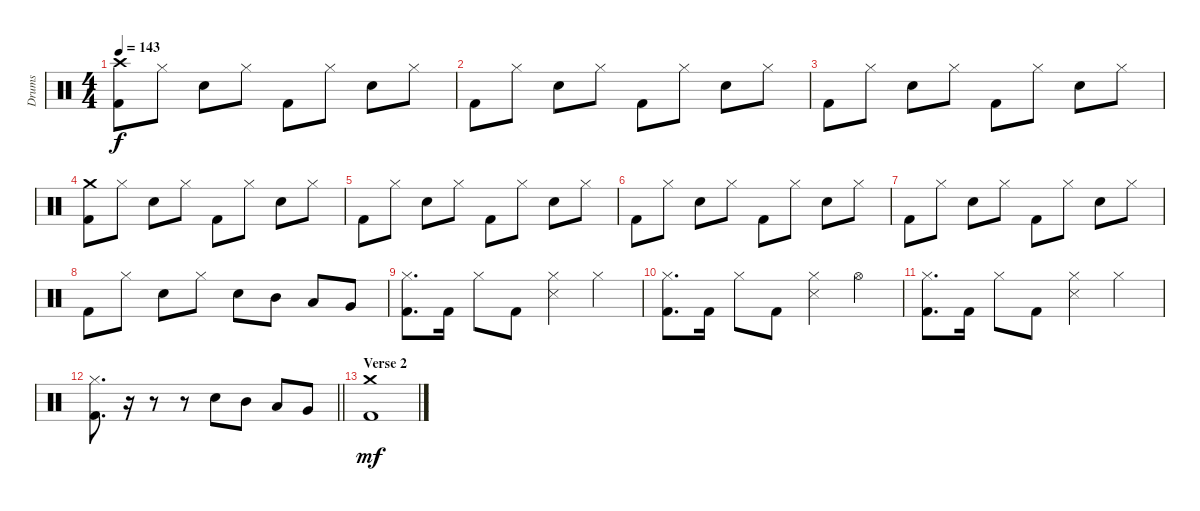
\track ("Drums" "Drums") {instrument percussion}
\staff {score}
\articulation defaults
\ts (4 4)
\tempo 143
\clef neutral
\ks c
("Crash high (hit)" "Kick (hit) 2").8{dy f} "Hi-Hat (closed)".8 "Snare (hit) 2".8 "Hi-Hat (closed)".8 "Kick (hit) 2".8 "Hi-Hat (closed)".8 "Snare (hit) 2".8 "Hi-Hat (closed)".8 |
"Kick (hit) 2".8 "Hi-Hat (closed)".8 "Snare (hit) 2".8 "Hi-Hat (closed)".8 "Kick (hit) 2".8 "Hi-Hat (closed)".8 "Snare (hit) 2".8 "Hi-Hat (closed)".8 |
"Kick (hit) 2".8 "Hi-Hat (closed)".8 "Snare (hit) 2".8 "Hi-Hat (closed)".8 "Kick (hit) 2".8 "Hi-Hat (closed)".8 "Snare (hit) 2".8 "Hi-Hat (closed)".8 |
("Crash medium (hit)" "Kick (hit) 2").8 "Hi-Hat (closed)".8 "Snare (hit) 2".8 "Hi-Hat (closed)".8 "Kick (hit) 2".8 "Hi-Hat (closed)".8 "Snare (hit) 2".8 "Hi-Hat (closed)".8 |
"Kick (hit) 2".8 "Hi-Hat (closed)".8 "Snare (hit) 2".8 "Hi-Hat (closed)".8 "Kick (hit) 2".8 "Hi-Hat (closed)".8 "Snare (hit) 2".8 "Hi-Hat (closed)".8 |
"Kick (hit) 2".8 "Hi-Hat (closed)".8 "Snare (hit) 2".8 "Hi-Hat (closed)".8 "Kick (hit) 2".8 "Hi-Hat (closed)".8 "Snare (hit) 2".8 "Hi-Hat (closed)".8 |
"Kick (hit) 2".8 "Hi-Hat (closed)".8 "Snare (hit) 2".8 "Hi-Hat (closed)".8 "Kick (hit) 2".8 "Hi-Hat (closed)".8 "Snare (hit) 2".8 "Hi-Hat (closed)".8 |
"Kick (hit) 2".8 "Hi-Hat (closed)".8 "Snare (hit) 2".8 "Hi-Hat (closed)".8 "Snare (hit) 2".8 "Mid Tom (hit)".8 "Low Tom (hit)".8 "Very Low Tom (hit)".8 |
("Hi-Hat (closed)" "Kick (hit) 2").8{d} "Kick (hit) 2".16 "Hi-Hat (closed)".8 "Kick (hit) 2".8 ("Hi-Hat (closed)" "Snare (side stick) 3").4 "Hi-Hat (closed)".4 |
("Hi-Hat (closed)" "Kick (hit) 2").8{d} "Kick (hit) 2".16 "Hi-Hat (closed)".8 "Kick (hit) 2".8 ("Hi-Hat (closed)" "Snare (side stick) 3").4 "Hi-Hat (open)".4 |
("Hi-Hat (closed)" "Kick (hit) 2").8{d} "Kick (hit) 2".16 "Hi-Hat (closed)".8 "Kick (hit) 2".8 ("Hi-Hat (closed)" "Snare (side stick) 3").4 "Hi-Hat (closed)".4 |
\barLineRight lightlight
("Hi-Hat (closed)" "Kick (hit) 2").8{d} r.16 r.8 r.8 "Snare (hit) 2".8 "Mid Tom (hit)".8 "Low Tom (hit)".8 "Very Low Tom (hit)".8 |
\section ("" "Verse 2")
("Crash medium (hit)" "Kick (hit) 2").1{dy mf}
